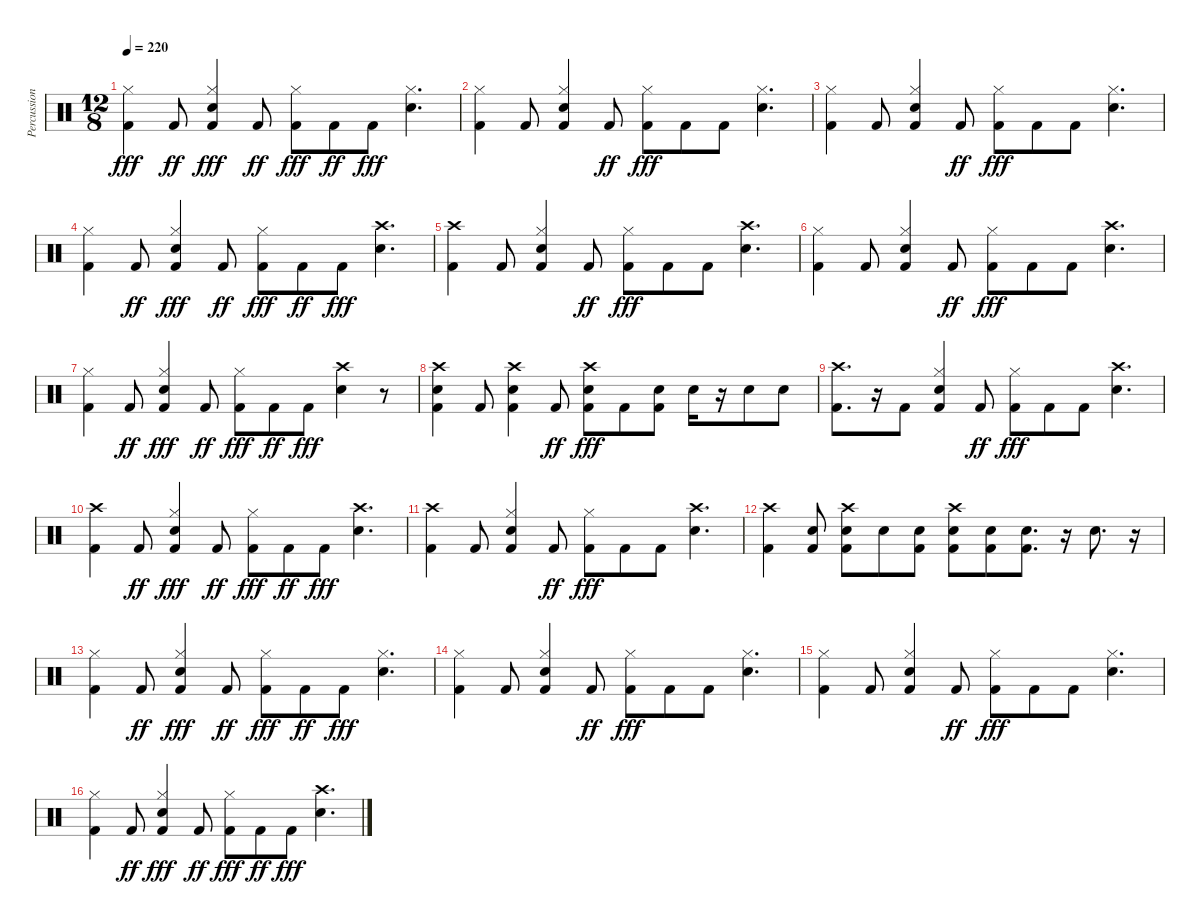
\track ("Percussion" "Percussion") {instrument percussion}
\staff {score}
\articulation defaults
\ts (12 8)
\tempo 220
\clef neutral
\ks c
("Kick (hit) 2" "Hi-Hat (closed)").4{dy fff} "Kick (hit) 2".8{dy ff} ("Kick (hit) 2" "Snare (hit) 2" "Hi-Hat (closed)").4{dy fff} "Kick (hit) 2".8{dy ff} ("Kick (hit) 2" "Hi-Hat (closed)").8{dy fff} "Kick (hit) 2".8{dy ff} "Kick (hit) 2".8{dy fff} ("Snare (hit) 2" "Hi-Hat (closed)").4{d} |
("Kick (hit) 2" "Hi-Hat (closed)").4 "Kick (hit) 2".8 ("Kick (hit) 2" "Snare (hit) 2" "Hi-Hat (closed)").4 "Kick (hit) 2".8{dy ff} ("Kick (hit) 2" "Hi-Hat (closed)").8{dy fff} "Kick (hit) 2".8 "Kick (hit) 2".8 ("Snare (hit) 2" "Hi-Hat (closed)").4{d} |
("Kick (hit) 2" "Hi-Hat (closed)").4 "Kick (hit) 2".8 ("Kick (hit) 2" "Snare (hit) 2" "Hi-Hat (closed)").4 "Kick (hit) 2".8{dy ff} ("Kick (hit) 2" "Hi-Hat (closed)").8{dy fff} "Kick (hit) 2".8 "Kick (hit) 2".8 ("Snare (hit) 2" "Hi-Hat (closed)").4{d} |
("Kick (hit) 2" "Hi-Hat (closed)").4 "Kick (hit) 2".8{dy ff} ("Kick (hit) 2" "Snare (hit) 2" "Hi-Hat (closed)").4{dy fff} "Kick (hit) 2".8{dy ff} ("Kick (hit) 2" "Hi-Hat (closed)").8{dy fff} "Kick (hit) 2".8{dy ff} "Kick (hit) 2".8{dy fff} ("Snare (hit) 2" "Crash high (hit)").4{d} |
("Kick (hit) 2" "Crash high (hit)").4 "Kick (hit) 2".8 ("Kick (hit) 2" "Snare (hit) 2" "Hi-Hat (closed)").4 "Kick (hit) 2".8{dy ff} ("Kick (hit) 2" "Hi-Hat (closed)").8{dy fff} "Kick (hit) 2".8 "Kick (hit) 2".8 ("Snare (hit) 2" "Crash high (hit)").4{d} |
("Kick (hit) 2" "Hi-Hat (closed)").4 "Kick (hit) 2".8 ("Kick (hit) 2" "Snare (hit) 2" "Hi-Hat (closed)").4 "Kick (hit) 2".8{dy ff} ("Kick (hit) 2" "Hi-Hat (closed)").8{dy fff} "Kick (hit) 2".8 "Kick (hit) 2".8 ("Snare (hit) 2" "Crash high (hit)").4{d} |
("Kick (hit) 2" "Hi-Hat (closed)").4 "Kick (hit) 2".8{dy ff} ("Kick (hit) 2" "Snare (hit) 2" "Hi-Hat (closed)").4{dy fff} "Kick (hit) 2".8{dy ff} ("Kick (hit) 2" "Hi-Hat (closed)").8{dy fff} "Kick (hit) 2".8{dy ff} "Kick (hit) 2".8{dy fff} ("Snare (hit) 2" "Crash high (hit)").4 r.8 |
("Kick (hit) 2" "Snare (hit) 2" "Crash high (hit)").4 "Kick (hit) 2".8 ("Kick (hit) 2" "Snare (hit) 2" "Crash high (hit)").4 "Kick (hit) 2".8{dy ff} ("Kick (hit) 2" "Snare (hit) 2" "Crash high (hit)").8{dy fff} "Kick (hit) 2".8 ("Kick (hit) 2" "Snare (hit) 2").8 "Snare (hit) 2".16 r.16 "Snare (hit) 2".8 "Snare (hit) 2".8 |
("Kick (hit) 2" "Crash high (hit)").8{d} r.16 "Kick (hit) 2".8 ("Kick (hit) 2" "Snare (hit) 2" "Hi-Hat (closed)").4 "Kick (hit) 2".8{dy ff} ("Kick (hit) 2" "Hi-Hat (closed)").8{dy fff} "Kick (hit) 2".8 "Kick (hit) 2".8 ("Snare (hit) 2" "Crash high (hit)").4{d} |
("Kick (hit) 2" "Crash high (hit)").4 "Kick (hit) 2".8{dy ff} ("Kick (hit) 2" "Snare (hit) 2" "Hi-Hat (closed)").4{dy fff} "Kick (hit) 2".8{dy ff} ("Kick (hit) 2" "Hi-Hat (closed)").8{dy fff} "Kick (hit) 2".8{dy ff} "Kick (hit) 2".8{dy fff} ("Snare (hit) 2" "Crash high (hit)").4{d} |
("Kick (hit) 2" "Crash high (hit)").4 "Kick (hit) 2".8 ("Kick (hit) 2" "Snare (hit) 2" "Hi-Hat (closed)").4 "Kick (hit) 2".8{dy ff} ("Kick (hit) 2" "Hi-Hat (closed)").8{dy fff} "Kick (hit) 2".8 "Kick (hit) 2".8 ("Snare (hit) 2" "Crash high (hit)").4{d} |
("Kick (hit) 2" "Crash high (hit)").4 ("Kick (hit) 2" "Snare (hit) 2").8 ("Kick (hit) 2" "Snare (hit) 2" "Crash high (hit)").8 "Snare (hit) 2".8 ("Kick (hit) 2" "Snare (hit) 2").8 ("Kick (hit) 2" "Snare (hit) 2" "Crash high (hit)").8 ("Kick (hit) 2" "Snare (hit) 2").8 ("Kick (hit) 2" "Snare (hit) 2").8{d} r.16 "Snare (hit) 2".8{d} r.16 |
("Kick (hit) 2" "Hi-Hat (closed)").4 "Kick (hit) 2".8{dy ff} ("Kick (hit) 2" "Snare (hit) 2" "Hi-Hat (closed)").4{dy fff} "Kick (hit) 2".8{dy ff} ("Kick (hit) 2" "Hi-Hat (closed)").8{dy fff} "Kick (hit) 2".8{dy ff} "Kick (hit) 2".8{dy fff} ("Snare (hit) 2" "Hi-Hat (closed)").4{d} |
("Kick (hit) 2" "Hi-Hat (closed)").4 "Kick (hit) 2".8 ("Kick (hit) 2" "Snare (hit) 2" "Hi-Hat (closed)").4 "Kick (hit) 2".8{dy ff} ("Kick (hit) 2" "Hi-Hat (closed)").8{dy fff} "Kick (hit) 2".8 "Kick (hit) 2".8 ("Snare (hit) 2" "Hi-Hat (closed)").4{d} |
("Kick (hit) 2" "Hi-Hat (closed)").4 "Kick (hit) 2".8 ("Kick (hit) 2" "Snare (hit) 2" "Hi-Hat (closed)").4 "Kick (hit) 2".8{dy ff} ("Kick (hit) 2" "Hi-Hat (closed)").8{dy fff} "Kick (hit) 2".8 "Kick (hit) 2".8 ("Snare (hit) 2" "Hi-Hat (closed)").4{d} |
("Kick (hit) 2" "Hi-Hat (closed)").4 "Kick (hit) 2".8{dy ff} ("Kick (hit) 2" "Snare (hit) 2" "Hi-Hat (closed)").4{dy fff} "Kick (hit) 2".8{dy ff} ("Kick (hit) 2" "Hi-Hat (closed)").8{dy fff} "Kick (hit) 2".8{dy ff} "Kick (hit) 2".8{dy fff} ("Snare (hit) 2" "Crash high (hit)").4{d}
